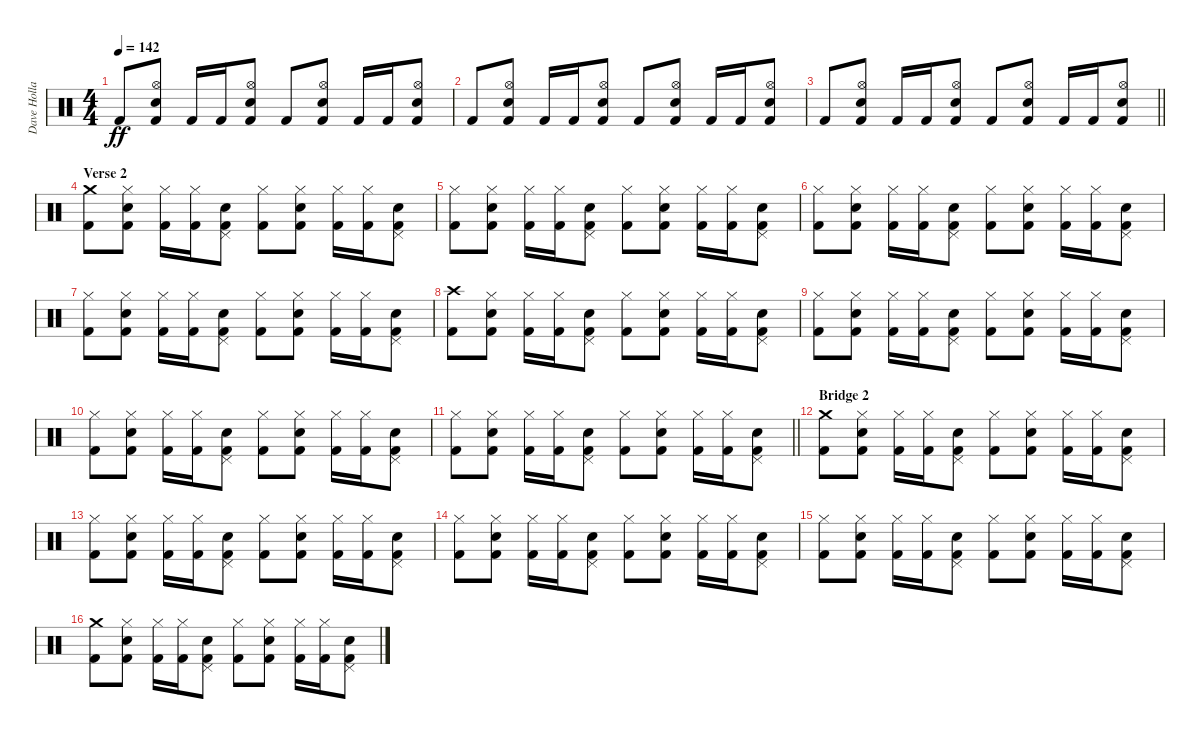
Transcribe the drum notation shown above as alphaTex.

\track ("Dave Holland" "Dave Holla") {instrument percussion}
\staff {score}
\articulation defaults
\ts (4 4)
\tempo 142
\clef neutral
\ks c "Kick (hit) 2".8{dy ff}
("Hi-Hat (open)" "Snare (hit) 2" "Kick (hit) 2").8 "Kick (hit) 2".16 "Kick (hit) 2".16 ("Hi-Hat (open)" "Snare (hit) 2" "Kick (hit) 2").8 "Kick (hit) 2".8 ("Hi-Hat (open)" "Snare (hit) 2" "Kick (hit) 2").8 "Kick (hit) 2".16 "Kick (hit) 2".16 ("Hi-Hat (open)" "Snare (hit) 2" "Kick (hit) 2").8 |
"Kick (hit) 2".8 ("Hi-Hat (open)" "Snare (hit) 2" "Kick (hit) 2").8 "Kick (hit) 2".16 "Kick (hit) 2".16 ("Hi-Hat (open)" "Snare (hit) 2" "Kick (hit) 2").8 "Kick (hit) 2".8 ("Hi-Hat (open)" "Snare (hit) 2" "Kick (hit) 2").8 "Kick (hit) 2".16 "Kick (hit) 2".16 ("Hi-Hat (open)" "Snare (hit) 2" "Kick (hit) 2").8 |
\barLineRight lightlight "Kick (hit) 2".8
("Hi-Hat (open)" "Snare (hit) 2" "Kick (hit) 2").8 "Kick (hit) 2".16 "Kick (hit) 2".16 ("Hi-Hat (open)" "Snare (hit) 2" "Kick (hit) 2").8 "Kick (hit) 2".8 ("Hi-Hat (open)" "Snare (hit) 2" "Kick (hit) 2").8 "Kick (hit) 2".16 "Kick (hit) 2".16 ("Hi-Hat (open)" "Snare (hit) 2" "Kick (hit) 2").8 |
\section ("" "Verse 2")
("Crash medium (hit)" "Kick (hit) 2").8 ("Hi-Hat (closed)" "Snare (hit) 2" "Kick (hit) 2").8 ("Hi-Hat (closed)" "Kick (hit) 2").16 ("Hi-Hat (closed)" "Kick (hit) 2").16 ("Pedal Hi-Hat (hit)" "Snare (hit) 2" "Kick (hit) 2").8 ("Hi-Hat (closed)" "Kick (hit) 2").8 ("Hi-Hat (closed)" "Snare (hit) 2" "Kick (hit) 2").8 ("Hi-Hat (closed)" "Kick (hit) 2").16 ("Hi-Hat (closed)" "Kick (hit) 2").16 ("Pedal Hi-Hat (hit)" "Snare (hit) 2" "Kick (hit) 2").8 |
("Hi-Hat (closed)" "Kick (hit) 2").8 ("Hi-Hat (closed)" "Snare (hit) 2" "Kick (hit) 2").8 ("Hi-Hat (closed)" "Kick (hit) 2").16 ("Hi-Hat (closed)" "Kick (hit) 2").16 ("Pedal Hi-Hat (hit)" "Snare (hit) 2" "Kick (hit) 2").8 ("Hi-Hat (closed)" "Kick (hit) 2").8 ("Hi-Hat (closed)" "Snare (hit) 2" "Kick (hit) 2").8 ("Hi-Hat (closed)" "Kick (hit) 2").16 ("Hi-Hat (closed)" "Kick (hit) 2").16 ("Pedal Hi-Hat (hit)" "Snare (hit) 2" "Kick (hit) 2").8 |
("Hi-Hat (closed)" "Kick (hit) 2").8 ("Hi-Hat (closed)" "Snare (hit) 2" "Kick (hit) 2").8 ("Hi-Hat (closed)" "Kick (hit) 2").16 ("Hi-Hat (closed)" "Kick (hit) 2").16 ("Pedal Hi-Hat (hit)" "Snare (hit) 2" "Kick (hit) 2").8 ("Hi-Hat (closed)" "Kick (hit) 2").8 ("Hi-Hat (closed)" "Snare (hit) 2" "Kick (hit) 2").8 ("Hi-Hat (closed)" "Kick (hit) 2").16 ("Hi-Hat (closed)" "Kick (hit) 2").16 ("Pedal Hi-Hat (hit)" "Snare (hit) 2" "Kick (hit) 2").8 |
("Hi-Hat (closed)" "Kick (hit) 2").8 ("Hi-Hat (closed)" "Snare (hit) 2" "Kick (hit) 2").8 ("Hi-Hat (closed)" "Kick (hit) 2").16 ("Hi-Hat (closed)" "Kick (hit) 2").16 ("Pedal Hi-Hat (hit)" "Snare (hit) 2" "Kick (hit) 2").8 ("Hi-Hat (closed)" "Kick (hit) 2").8 ("Hi-Hat (closed)" "Snare (hit) 2" "Kick (hit) 2").8 ("Hi-Hat (closed)" "Kick (hit) 2").16 ("Hi-Hat (closed)" "Kick (hit) 2").16 ("Pedal Hi-Hat (hit)" "Snare (hit) 2" "Kick (hit) 2").8 |
("Crash high (hit)" "Kick (hit) 2").8 ("Hi-Hat (closed)" "Snare (hit) 2" "Kick (hit) 2").8 ("Hi-Hat (closed)" "Kick (hit) 2").16 ("Hi-Hat (closed)" "Kick (hit) 2").16 ("Pedal Hi-Hat (hit)" "Snare (hit) 2" "Kick (hit) 2").8 ("Hi-Hat (closed)" "Kick (hit) 2").8 ("Hi-Hat (closed)" "Snare (hit) 2" "Kick (hit) 2").8 ("Hi-Hat (closed)" "Kick (hit) 2").16 ("Hi-Hat (closed)" "Kick (hit) 2").16 ("Pedal Hi-Hat (hit)" "Snare (hit) 2" "Kick (hit) 2").8 |
("Hi-Hat (closed)" "Kick (hit) 2").8 ("Hi-Hat (closed)" "Snare (hit) 2" "Kick (hit) 2").8 ("Hi-Hat (closed)" "Kick (hit) 2").16 ("Hi-Hat (closed)" "Kick (hit) 2").16 ("Pedal Hi-Hat (hit)" "Snare (hit) 2" "Kick (hit) 2").8 ("Hi-Hat (closed)" "Kick (hit) 2").8 ("Hi-Hat (closed)" "Snare (hit) 2" "Kick (hit) 2").8 ("Hi-Hat (closed)" "Kick (hit) 2").16 ("Hi-Hat (closed)" "Kick (hit) 2").16 ("Pedal Hi-Hat (hit)" "Snare (hit) 2" "Kick (hit) 2").8 |
("Hi-Hat (closed)" "Kick (hit) 2").8 ("Hi-Hat (closed)" "Snare (hit) 2" "Kick (hit) 2").8 ("Hi-Hat (closed)" "Kick (hit) 2").16 ("Hi-Hat (closed)" "Kick (hit) 2").16 ("Pedal Hi-Hat (hit)" "Snare (hit) 2" "Kick (hit) 2").8 ("Hi-Hat (closed)" "Kick (hit) 2").8 ("Hi-Hat (closed)" "Snare (hit) 2" "Kick (hit) 2").8 ("Hi-Hat (closed)" "Kick (hit) 2").16 ("Hi-Hat (closed)" "Kick (hit) 2").16 ("Pedal Hi-Hat (hit)" "Snare (hit) 2" "Kick (hit) 2").8 |
\barLineRight lightlight
("Hi-Hat (closed)" "Kick (hit) 2").8 ("Hi-Hat (closed)" "Snare (hit) 2" "Kick (hit) 2").8 ("Hi-Hat (closed)" "Kick (hit) 2").16 ("Hi-Hat (closed)" "Kick (hit) 2").16 ("Pedal Hi-Hat (hit)" "Snare (hit) 2" "Kick (hit) 2").8 ("Hi-Hat (closed)" "Kick (hit) 2").8 ("Hi-Hat (closed)" "Snare (hit) 2" "Kick (hit) 2").8 ("Hi-Hat (closed)" "Kick (hit) 2").16 ("Hi-Hat (closed)" "Kick (hit) 2").16 ("Pedal Hi-Hat (hit)" "Snare (hit) 2" "Kick (hit) 2").8 |
\section ("" "Bridge 2")
("Crash medium (hit)" "Kick (hit) 2").8 ("Hi-Hat (closed)" "Snare (hit) 2" "Kick (hit) 2").8 ("Hi-Hat (closed)" "Kick (hit) 2").16 ("Hi-Hat (closed)" "Kick (hit) 2").16 ("Pedal Hi-Hat (hit)" "Snare (hit) 2" "Kick (hit) 2").8 ("Hi-Hat (closed)" "Kick (hit) 2").8 ("Hi-Hat (closed)" "Snare (hit) 2" "Kick (hit) 2").8 ("Hi-Hat (closed)" "Kick (hit) 2").16 ("Hi-Hat (closed)" "Kick (hit) 2").16 ("Pedal Hi-Hat (hit)" "Snare (hit) 2" "Kick (hit) 2").8 |
("Hi-Hat (closed)" "Kick (hit) 2").8 ("Hi-Hat (closed)" "Snare (hit) 2" "Kick (hit) 2").8 ("Hi-Hat (closed)" "Kick (hit) 2").16 ("Hi-Hat (closed)" "Kick (hit) 2").16 ("Pedal Hi-Hat (hit)" "Snare (hit) 2" "Kick (hit) 2").8 ("Hi-Hat (closed)" "Kick (hit) 2").8 ("Hi-Hat (closed)" "Snare (hit) 2" "Kick (hit) 2").8 ("Hi-Hat (closed)" "Kick (hit) 2").16 ("Hi-Hat (closed)" "Kick (hit) 2").16 ("Pedal Hi-Hat (hit)" "Snare (hit) 2" "Kick (hit) 2").8 |
("Hi-Hat (closed)" "Kick (hit) 2").8 ("Hi-Hat (closed)" "Snare (hit) 2" "Kick (hit) 2").8 ("Hi-Hat (closed)" "Kick (hit) 2").16 ("Hi-Hat (closed)" "Kick (hit) 2").16 ("Pedal Hi-Hat (hit)" "Snare (hit) 2" "Kick (hit) 2").8 ("Hi-Hat (closed)" "Kick (hit) 2").8 ("Hi-Hat (closed)" "Snare (hit) 2" "Kick (hit) 2").8 ("Hi-Hat (closed)" "Kick (hit) 2").16 ("Hi-Hat (closed)" "Kick (hit) 2").16 ("Pedal Hi-Hat (hit)" "Snare (hit) 2" "Kick (hit) 2").8 |
("Hi-Hat (closed)" "Kick (hit) 2").8 ("Hi-Hat (closed)" "Snare (hit) 2" "Kick (hit) 2").8 ("Hi-Hat (closed)" "Kick (hit) 2").16 ("Hi-Hat (closed)" "Kick (hit) 2").16 ("Pedal Hi-Hat (hit)" "Snare (hit) 2" "Kick (hit) 2").8 ("Hi-Hat (closed)" "Kick (hit) 2").8 ("Hi-Hat (closed)" "Snare (hit) 2" "Kick (hit) 2").8 ("Hi-Hat (closed)" "Kick (hit) 2").16 ("Hi-Hat (closed)" "Kick (hit) 2").16 ("Pedal Hi-Hat (hit)" "Snare (hit) 2" "Kick (hit) 2").8 |
("Crash medium (hit)" "Kick (hit) 2").8 ("Hi-Hat (closed)" "Snare (hit) 2" "Kick (hit) 2").8 ("Hi-Hat (closed)" "Kick (hit) 2").16 ("Hi-Hat (closed)" "Kick (hit) 2").16 ("Pedal Hi-Hat (hit)" "Snare (hit) 2" "Kick (hit) 2").8 ("Hi-Hat (closed)" "Kick (hit) 2").8 ("Hi-Hat (closed)" "Snare (hit) 2" "Kick (hit) 2").8 ("Hi-Hat (closed)" "Kick (hit) 2").16 ("Hi-Hat (closed)" "Kick (hit) 2").16 ("Pedal Hi-Hat (hit)" "Snare (hit) 2" "Kick (hit) 2").8
